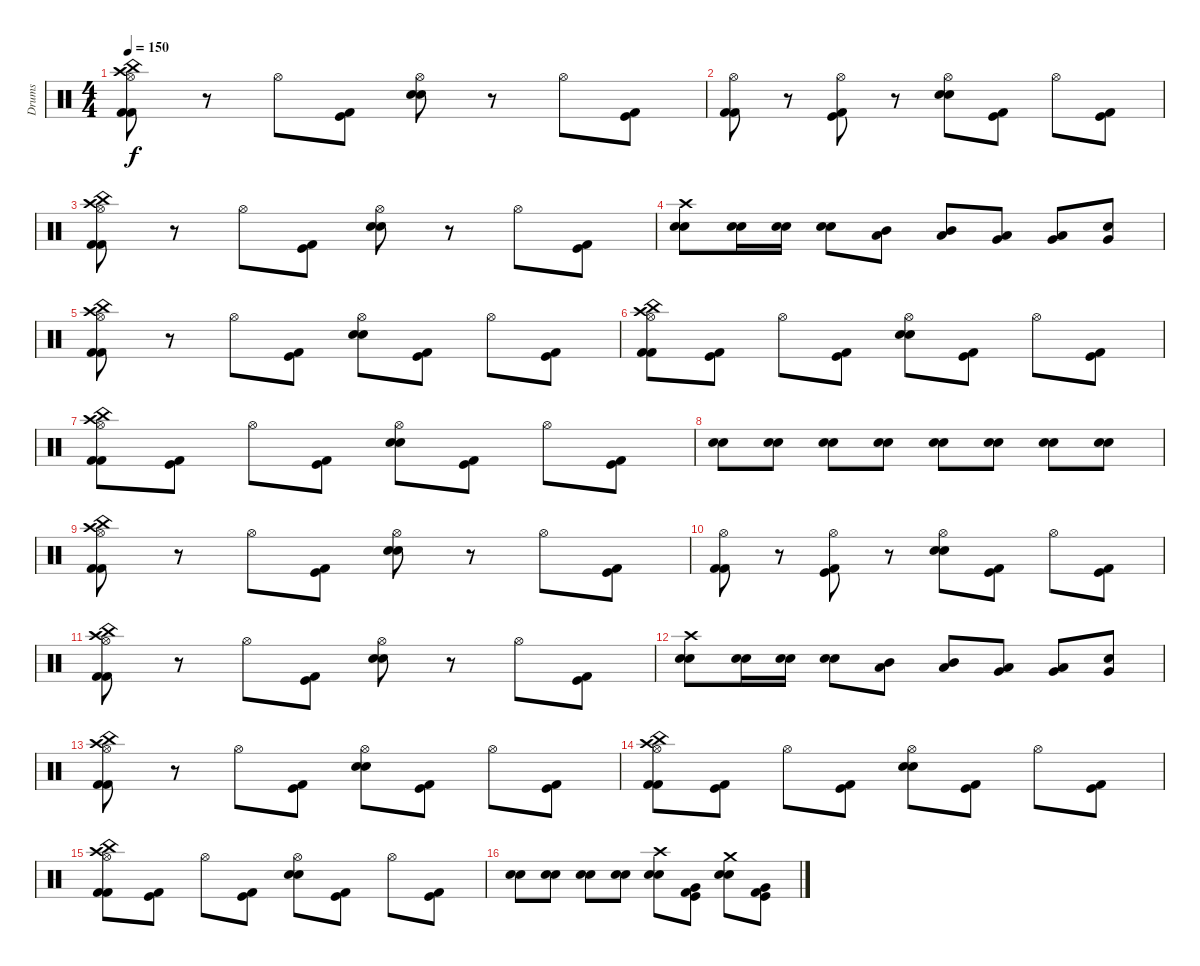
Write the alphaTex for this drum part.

\track ("Drums" "Drums") {instrument percussion}
\staff {score}
\articulation defaults
\ts (4 4)
\tempo 150
\clef neutral
\ks c
("Crash high (hit)" "Hi-Hat (open)" "China (hit)" "Kick (hit) 2" "Kick (hit) 2").8{dy f} r.8 "Hi-Hat (open)".8 ("Kick (hit) 2" "Kick (hit)").8 ("Hi-Hat (open)" "Electric Snare (hit)" "Snare (hit) 2").8 r.8 "Hi-Hat (open)".8 ("Kick (hit) 2" "Kick (hit)").8 |
("Hi-Hat (open)" "Kick (hit) 2" "Kick (hit) 2").8 r.8 ("Hi-Hat (open)" "Kick (hit) 2" "Kick (hit)").8 r.8 ("Hi-Hat (open)" "Electric Snare (hit)" "Snare (hit) 2").8 ("Kick (hit)" "Kick (hit) 2").8 "Hi-Hat (open)".8 ("Kick (hit) 2" "Kick (hit)").8 |
("Crash high (hit)" "Hi-Hat (open)" "China (hit)" "Kick (hit) 2" "Kick (hit) 2").8 r.8 "Hi-Hat (open)".8 ("Kick (hit) 2" "Kick (hit)").8 ("Hi-Hat (open)" "Electric Snare (hit)" "Snare (hit) 2").8 r.8 "Hi-Hat (open)".8 ("Kick (hit) 2" "Kick (hit)").8 |
("Crash high (hit)" "Electric Snare (hit)" "Snare (hit) 2").8 ("Electric Snare (hit)" "Snare (hit) 2").16 ("Electric Snare (hit)" "Snare (hit) 2").16 ("Electric Snare (hit)" "Snare (hit) 2").8 ("Low Tom (hit)" "Mid Tom (hit)").8 ("Low Tom (hit)" "Mid Tom (hit)").8 ("Very Low Tom (hit)" "Low Tom (hit)").8 ("Very Low Tom (hit)" "Low Tom (hit)").8 ("Snare (hit)" "Very Low Tom (hit)").8 |
("Crash high (hit)" "Hi-Hat (open)" "China (hit)" "Kick (hit) 2" "Kick (hit) 2").8 r.8 "Hi-Hat (open)".8 ("Kick (hit) 2" "Kick (hit)").8 ("Hi-Hat (open)" "Electric Snare (hit)" "Snare (hit) 2").8 ("Kick (hit) 2" "Kick (hit)").8 "Hi-Hat (open)".8 ("Kick (hit) 2" "Kick (hit)").8 |
("Crash high (hit)" "Hi-Hat (open)" "China (hit)" "Kick (hit) 2" "Kick (hit) 2").8 ("Kick (hit) 2" "Kick (hit)").8 "Hi-Hat (open)".8 ("Kick (hit) 2" "Kick (hit)").8 ("Hi-Hat (open)" "Electric Snare (hit)" "Snare (hit) 2").8 ("Kick (hit) 2" "Kick (hit)").8 "Hi-Hat (open)".8 ("Kick (hit) 2" "Kick (hit)").8 |
("Crash high (hit)" "Hi-Hat (open)" "China (hit)" "Kick (hit) 2" "Kick (hit) 2").8 ("Kick (hit) 2" "Kick (hit)").8 "Hi-Hat (open)".8 ("Kick (hit) 2" "Kick (hit)").8 ("Hi-Hat (open)" "Electric Snare (hit)" "Snare (hit) 2").8 ("Kick (hit) 2" "Kick (hit)").8 "Hi-Hat (open)".8 ("Kick (hit) 2" "Kick (hit)").8 |
("Electric Snare (hit)" "Snare (hit) 2").8 ("Electric Snare (hit)" "Snare (hit) 2").8 ("Electric Snare (hit)" "Snare (hit) 2").8 ("Electric Snare (hit)" "Snare (hit) 2").8 ("Electric Snare (hit)" "Snare (hit) 2").8 ("Electric Snare (hit)" "Snare (hit) 2").8 ("Electric Snare (hit)" "Snare (hit) 2").8 ("Electric Snare (hit)" "Snare (hit) 2").8 |
("Crash high (hit)" "Hi-Hat (open)" "China (hit)" "Kick (hit) 2" "Kick (hit) 2").8 r.8 "Hi-Hat (open)".8 ("Kick (hit) 2" "Kick (hit)").8 ("Hi-Hat (open)" "Electric Snare (hit)" "Snare (hit) 2").8 r.8 "Hi-Hat (open)".8 ("Kick (hit) 2" "Kick (hit)").8 |
("Hi-Hat (open)" "Kick (hit) 2" "Kick (hit) 2").8 r.8 ("Hi-Hat (open)" "Kick (hit) 2" "Kick (hit)").8 r.8 ("Hi-Hat (open)" "Electric Snare (hit)" "Snare (hit) 2").8 ("Kick (hit)" "Kick (hit) 2").8 "Hi-Hat (open)".8 ("Kick (hit) 2" "Kick (hit)").8 |
("Crash high (hit)" "Hi-Hat (open)" "China (hit)" "Kick (hit) 2" "Kick (hit) 2").8 r.8 "Hi-Hat (open)".8 ("Kick (hit) 2" "Kick (hit)").8 ("Hi-Hat (open)" "Electric Snare (hit)" "Snare (hit) 2").8 r.8 "Hi-Hat (open)".8 ("Kick (hit) 2" "Kick (hit)").8 |
("Crash high (hit)" "Electric Snare (hit)" "Snare (hit) 2").8 ("Electric Snare (hit)" "Snare (hit) 2").16 ("Electric Snare (hit)" "Snare (hit) 2").16 ("Electric Snare (hit)" "Snare (hit) 2").8 ("Low Tom (hit)" "Mid Tom (hit)").8 ("Low Tom (hit)" "Mid Tom (hit)").8 ("Very Low Tom (hit)" "Low Tom (hit)").8 ("Very Low Tom (hit)" "Low Tom (hit)").8 ("Snare (hit)" "Very Low Tom (hit)").8 |
("Crash high (hit)" "Hi-Hat (open)" "China (hit)" "Kick (hit) 2" "Kick (hit) 2").8 r.8 "Hi-Hat (open)".8 ("Kick (hit) 2" "Kick (hit)").8 ("Hi-Hat (open)" "Electric Snare (hit)" "Snare (hit) 2").8 ("Kick (hit) 2" "Kick (hit)").8 "Hi-Hat (open)".8 ("Kick (hit) 2" "Kick (hit)").8 |
("Crash high (hit)" "Hi-Hat (open)" "China (hit)" "Kick (hit) 2" "Kick (hit) 2").8 ("Kick (hit) 2" "Kick (hit)").8 "Hi-Hat (open)".8 ("Kick (hit) 2" "Kick (hit)").8 ("Hi-Hat (open)" "Electric Snare (hit)" "Snare (hit) 2").8 ("Kick (hit) 2" "Kick (hit)").8 "Hi-Hat (open)".8 ("Kick (hit) 2" "Kick (hit)").8 |
("Crash high (hit)" "Hi-Hat (open)" "China (hit)" "Kick (hit) 2" "Kick (hit) 2").8 ("Kick (hit) 2" "Kick (hit)").8 "Hi-Hat (open)".8 ("Kick (hit) 2" "Kick (hit)").8 ("Hi-Hat (open)" "Electric Snare (hit)" "Snare (hit) 2").8 ("Kick (hit) 2" "Kick (hit)").8 "Hi-Hat (open)".8 ("Kick (hit) 2" "Kick (hit)").8 |
("Electric Snare (hit)" "Snare (hit) 2").8 ("Electric Snare (hit)" "Snare (hit) 2").8 ("Electric Snare (hit)" "Snare (hit) 2").8 ("Electric Snare (hit)" "Snare (hit) 2").8 ("Crash high (hit)" "Electric Snare (hit)" "Snare (hit) 2").8 ("Very Low Tom (hit)" "Kick (hit) 2" "Kick (hit)").8 ("Crash medium (hit)" "Electric Snare (hit)" "Snare (hit) 2").8 ("Very Low Tom (hit)" "Kick (hit) 2" "Kick (hit)").8
